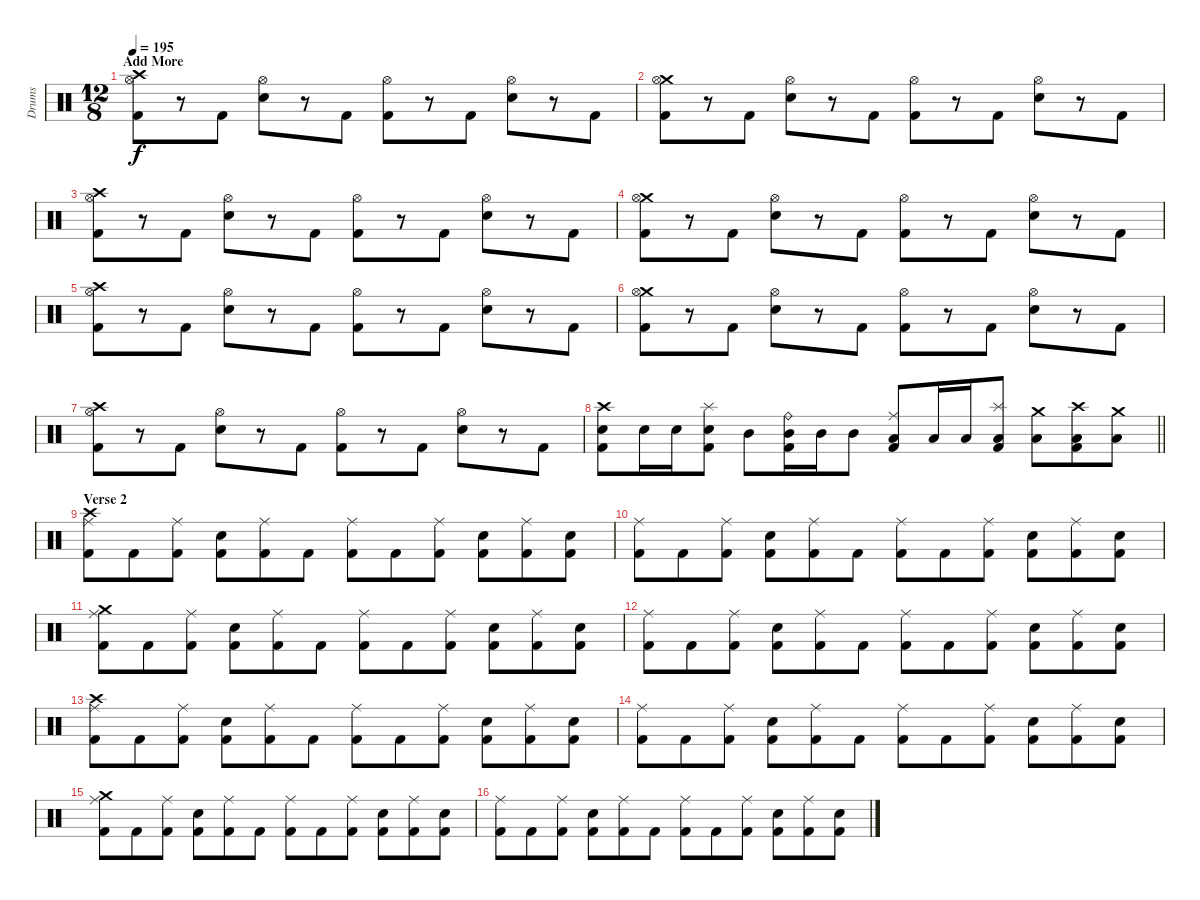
\track ("Drums" "Drums") {instrument percussion}
\staff {score}
\articulation defaults
\ts (12 8)
\section ("" "Add More")
\tempo 195
\clef neutral
\ks c
("Crash high (hit)" "Hi-Hat (open)" "Kick (hit) 2").8{dy f} r.8 "Kick (hit) 2".8 ("Hi-Hat (open)" "Snare (hit) 2").8 r.8 "Kick (hit) 2".8 ("Hi-Hat (open)" "Kick (hit) 2").8 r.8 "Kick (hit) 2".8 ("Hi-Hat (open)" "Snare (hit) 2").8 r.8 "Kick (hit) 2".8 |
("Crash medium (hit)" "Hi-Hat (open)" "Kick (hit) 2").8 r.8 "Kick (hit) 2".8 ("Hi-Hat (open)" "Snare (hit) 2").8 r.8 "Kick (hit) 2".8 ("Hi-Hat (open)" "Kick (hit) 2").8 r.8 "Kick (hit) 2".8 ("Hi-Hat (open)" "Snare (hit) 2").8 r.8 "Kick (hit) 2".8 |
("Crash high (hit)" "Hi-Hat (open)" "Kick (hit) 2").8 r.8 "Kick (hit) 2".8 ("Hi-Hat (open)" "Snare (hit) 2").8 r.8 "Kick (hit) 2".8 ("Hi-Hat (open)" "Kick (hit) 2").8 r.8 "Kick (hit) 2".8 ("Hi-Hat (open)" "Snare (hit) 2").8 r.8 "Kick (hit) 2".8 |
("Crash medium (hit)" "Hi-Hat (open)" "Kick (hit) 2").8 r.8 "Kick (hit) 2".8 ("Hi-Hat (open)" "Snare (hit) 2").8 r.8 "Kick (hit) 2".8 ("Hi-Hat (open)" "Kick (hit) 2").8 r.8 "Kick (hit) 2".8 ("Hi-Hat (open)" "Snare (hit) 2").8 r.8 "Kick (hit) 2".8 |
("Crash high (hit)" "Hi-Hat (open)" "Kick (hit) 2").8 r.8 "Kick (hit) 2".8 ("Hi-Hat (open)" "Snare (hit) 2").8 r.8 "Kick (hit) 2".8 ("Hi-Hat (open)" "Kick (hit) 2").8 r.8 "Kick (hit) 2".8 ("Hi-Hat (open)" "Snare (hit) 2").8 r.8 "Kick (hit) 2".8 |
("Crash medium (hit)" "Hi-Hat (open)" "Kick (hit) 2").8 r.8 "Kick (hit) 2".8 ("Hi-Hat (open)" "Snare (hit) 2").8 r.8 "Kick (hit) 2".8 ("Hi-Hat (open)" "Kick (hit) 2").8 r.8 "Kick (hit) 2".8 ("Hi-Hat (open)" "Snare (hit) 2").8 r.8 "Kick (hit) 2".8 |
("Crash high (hit)" "Hi-Hat (open)" "Kick (hit) 2").8 r.8 "Kick (hit) 2".8 ("Hi-Hat (open)" "Snare (hit) 2").8 r.8 "Kick (hit) 2".8 ("Hi-Hat (open)" "Kick (hit) 2").8 r.8 "Kick (hit) 2".8 ("Hi-Hat (open)" "Snare (hit) 2").8 r.8 "Kick (hit) 2".8 |
\barLineRight lightlight
("Crash high (hit)" "Snare (hit) 2" "Kick (hit) 2").8 "Snare (hit) 2".16 "Snare (hit) 2".16 ("Splash (hit)" "Snare (hit) 2" "Kick (hit) 2").8 "Mid Tom (hit)".8 ("Ride (bell)" "Mid Tom (hit)" "Kick (hit) 2").16 "Mid Tom (hit)".16 "Mid Tom (hit)".8 ("Ride (middle)" "Low Tom (hit)" "Kick (hit) 2").8 "Low Tom (hit)".16 "Low Tom (hit)".16 ("Splash (hit)" "Low Tom (hit)" "Kick (hit) 2").8 ("Crash medium (hit)" "Low Floor Tom (hit)").8 ("Crash high (hit)" "Low Floor Tom (hit)" "Kick (hit) 2").8 ("Crash medium (hit)" "Low Floor Tom (hit)").8 |
\section ("" "Verse 2")
("Crash high (hit)" "Ride (middle)" "Kick (hit) 2").8 "Kick (hit) 2".8 ("Ride (middle)" "Kick (hit) 2").8 ("Snare (hit) 2" "Kick (hit) 2").8 ("Ride (middle)" "Kick (hit) 2").8 "Kick (hit) 2".8 ("Ride (middle)" "Kick (hit) 2").8 "Kick (hit) 2".8 ("Ride (middle)" "Kick (hit) 2").8 ("Snare (hit) 2" "Kick (hit) 2").8 ("Ride (middle)" "Kick (hit) 2").8 ("Snare (hit) 2" "Kick (hit) 2").8 |
("Ride (middle)" "Kick (hit) 2").8 "Kick (hit) 2".8 ("Ride (middle)" "Kick (hit) 2").8 ("Snare (hit) 2" "Kick (hit) 2").8 ("Ride (middle)" "Kick (hit) 2").8 "Kick (hit) 2".8 ("Ride (middle)" "Kick (hit) 2").8 "Kick (hit) 2".8 ("Ride (middle)" "Kick (hit) 2").8 ("Snare (hit) 2" "Kick (hit) 2").8 ("Ride (middle)" "Kick (hit) 2").8 ("Snare (hit) 2" "Kick (hit) 2").8 |
("Crash medium (hit)" "Ride (middle)" "Kick (hit) 2").8 "Kick (hit) 2".8 ("Ride (middle)" "Kick (hit) 2").8 ("Snare (hit) 2" "Kick (hit) 2").8 ("Ride (middle)" "Kick (hit) 2").8 "Kick (hit) 2".8 ("Ride (middle)" "Kick (hit) 2").8 "Kick (hit) 2".8 ("Ride (middle)" "Kick (hit) 2").8 ("Snare (hit) 2" "Kick (hit) 2").8 ("Ride (middle)" "Kick (hit) 2").8 ("Snare (hit) 2" "Kick (hit) 2").8 |
("Ride (middle)" "Kick (hit) 2").8 "Kick (hit) 2".8 ("Ride (middle)" "Kick (hit) 2").8 ("Snare (hit) 2" "Kick (hit) 2").8 ("Ride (middle)" "Kick (hit) 2").8 "Kick (hit) 2".8 ("Ride (middle)" "Kick (hit) 2").8 "Kick (hit) 2".8 ("Ride (middle)" "Kick (hit) 2").8 ("Snare (hit) 2" "Kick (hit) 2").8 ("Ride (middle)" "Kick (hit) 2").8 ("Snare (hit) 2" "Kick (hit) 2").8 |
("Crash high (hit)" "Ride (middle)" "Kick (hit) 2").8 "Kick (hit) 2".8 ("Ride (middle)" "Kick (hit) 2").8 ("Snare (hit) 2" "Kick (hit) 2").8 ("Ride (middle)" "Kick (hit) 2").8 "Kick (hit) 2".8 ("Ride (middle)" "Kick (hit) 2").8 "Kick (hit) 2".8 ("Ride (middle)" "Kick (hit) 2").8 ("Snare (hit) 2" "Kick (hit) 2").8 ("Ride (middle)" "Kick (hit) 2").8 ("Snare (hit) 2" "Kick (hit) 2").8 |
("Ride (middle)" "Kick (hit) 2").8 "Kick (hit) 2".8 ("Ride (middle)" "Kick (hit) 2").8 ("Snare (hit) 2" "Kick (hit) 2").8 ("Ride (middle)" "Kick (hit) 2").8 "Kick (hit) 2".8 ("Ride (middle)" "Kick (hit) 2").8 "Kick (hit) 2".8 ("Ride (middle)" "Kick (hit) 2").8 ("Snare (hit) 2" "Kick (hit) 2").8 ("Ride (middle)" "Kick (hit) 2").8 ("Snare (hit) 2" "Kick (hit) 2").8 |
("Crash medium (hit)" "Ride (middle)" "Kick (hit) 2").8 "Kick (hit) 2".8 ("Ride (middle)" "Kick (hit) 2").8 ("Snare (hit) 2" "Kick (hit) 2").8 ("Ride (middle)" "Kick (hit) 2").8 "Kick (hit) 2".8 ("Ride (middle)" "Kick (hit) 2").8 "Kick (hit) 2".8 ("Ride (middle)" "Kick (hit) 2").8 ("Snare (hit) 2" "Kick (hit) 2").8 ("Ride (middle)" "Kick (hit) 2").8 ("Snare (hit) 2" "Kick (hit) 2").8 |
("Ride (middle)" "Kick (hit) 2").8 "Kick (hit) 2".8 ("Ride (middle)" "Kick (hit) 2").8 ("Snare (hit) 2" "Kick (hit) 2").8 ("Ride (middle)" "Kick (hit) 2").8 "Kick (hit) 2".8 ("Ride (middle)" "Kick (hit) 2").8 "Kick (hit) 2".8 ("Ride (middle)" "Kick (hit) 2").8 ("Snare (hit) 2" "Kick (hit) 2").8 ("Ride (middle)" "Kick (hit) 2").8 ("Snare (hit) 2" "Kick (hit) 2").8
